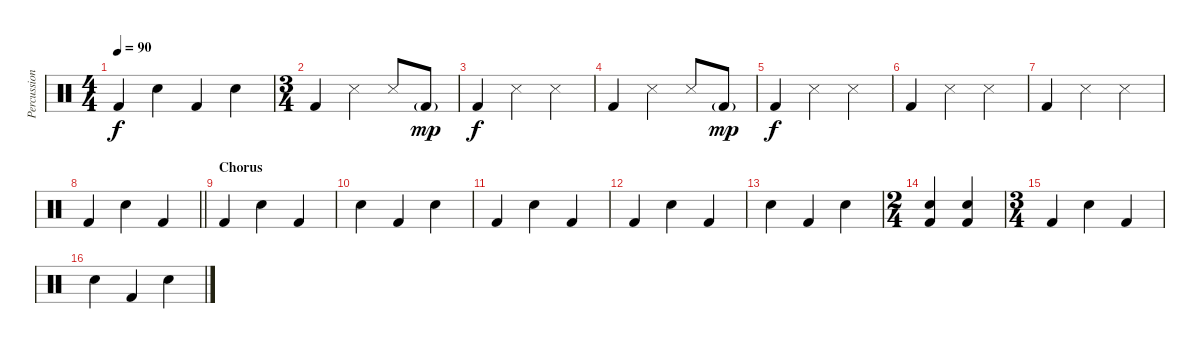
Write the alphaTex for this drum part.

\track ("Percussion" "Percussion") {instrument percussion}
\staff {score}
\articulation defaults
\ts (4 4)
\tempo 90
\clef neutral
\ks c "Kick (hit) 2".4{dy f} "Snare (hit) 2".4 "Kick (hit) 2".4 "Snare (hit) 2".4
|
\ts (3 4)
"Kick (hit) 2".4 "Snare (side stick) 3".4 "Snare (side stick) 3".8 "Kick (hit) 2"{g}.8{dy mp} |
"Kick (hit) 2".4{dy f} "Snare (side stick) 3".4 "Snare (side stick) 3".4 |
"Kick (hit) 2".4 "Snare (side stick) 3".4 "Snare (side stick) 3".8 "Kick (hit) 2"{g}.8{dy mp} |
"Kick (hit) 2".4{dy f} "Snare (side stick) 3".4 "Snare (side stick) 3".4 |
"Kick (hit) 2".4 "Snare (side stick) 3".4 "Snare (side stick) 3".4 |
"Kick (hit) 2".4 "Snare (side stick) 3".4 "Snare (side stick) 3".4 |
\barLineRight lightlight "Kick (hit) 2".4 "Snare (hit) 2".4 "Kick (hit) 2".4
|
\section ("" "Chorus")
"Kick (hit) 2".4 "Snare (hit) 2".4 "Kick (hit) 2".4 |
"Snare (hit) 2".4 "Kick (hit) 2".4 "Snare (hit) 2".4 |
"Kick (hit) 2".4 "Snare (hit) 2".4 "Kick (hit) 2".4 |
"Kick (hit) 2".4 "Snare (hit) 2".4 "Kick (hit) 2".4 |
"Snare (hit) 2".4 "Kick (hit) 2".4 "Snare (hit) 2".4 |
\ts (2 4)
("Snare (hit) 2" "Kick (hit) 2").4 ("Snare (hit) 2" "Kick (hit) 2").4 |
\ts (3 4)
"Kick (hit) 2".4 "Snare (hit) 2".4 "Kick (hit) 2".4 |
"Snare (hit) 2".4 "Kick (hit) 2".4 "Snare (hit) 2".4
